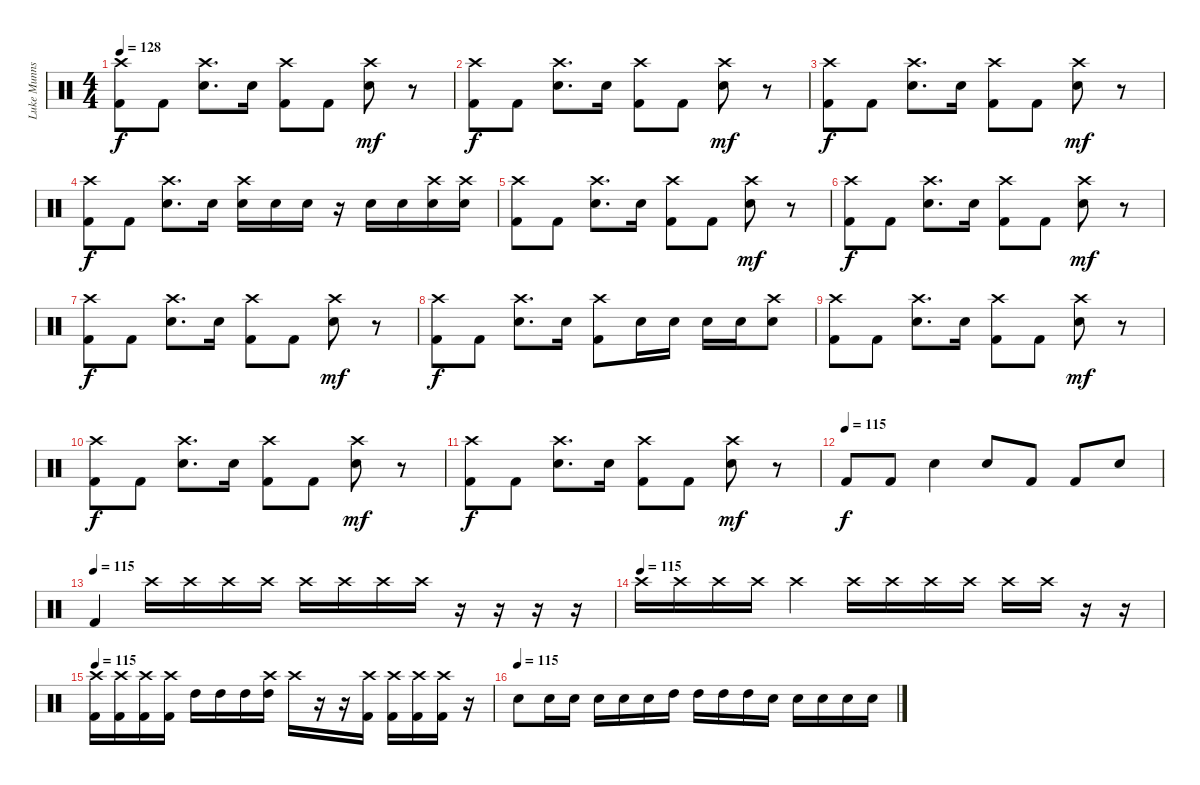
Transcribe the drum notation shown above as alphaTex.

\track ("Luke Munns" "Luke Munns") {instrument percussion}
\staff {score}
\articulation defaults
\ts (4 4)
\tempo 128
\clef neutral
\ks c
("Kick (hit) 2" "Crash high (hit)").8{dy f} "Kick (hit) 2".8 ("Electric Snare (hit)" "Crash high (hit)").8{d} "Electric Snare (hit)".16 ("Kick (hit) 2" "Crash high (hit)").8 "Kick (hit) 2".8 ("Electric Snare (hit)" "Crash high (hit)").8{dy mf} r.8 |
("Kick (hit) 2" "Crash high (hit)").8{dy f} "Kick (hit) 2".8 ("Electric Snare (hit)" "Crash high (hit)").8{d} "Electric Snare (hit)".16 ("Kick (hit) 2" "Crash high (hit)").8 "Kick (hit) 2".8 ("Electric Snare (hit)" "Crash high (hit)").8{dy mf} r.8 |
("Kick (hit) 2" "Crash high (hit)").8{dy f} "Kick (hit) 2".8 ("Electric Snare (hit)" "Crash high (hit)").8{d} "Electric Snare (hit)".16 ("Kick (hit) 2" "Crash high (hit)").8 "Kick (hit) 2".8 ("Electric Snare (hit)" "Crash high (hit)").8{dy mf} r.8 |
("Kick (hit) 2" "Crash high (hit)").8{dy f} "Kick (hit) 2".8 ("Electric Snare (hit)" "Crash high (hit)").8{d} "Electric Snare (hit)".16 ("Electric Snare (hit)" "Crash high (hit)").16 "Electric Snare (hit)".16 "Electric Snare (hit)".16 r.16 "Electric Snare (hit)".16 "Electric Snare (hit)".16 ("Electric Snare (hit)" "Crash high (hit)").16 ("Electric Snare (hit)" "Crash high (hit)").16 |
("Kick (hit) 2" "Crash high (hit)").8 "Kick (hit) 2".8 ("Electric Snare (hit)" "Crash high (hit)").8{d} "Electric Snare (hit)".16 ("Kick (hit) 2" "Crash high (hit)").8 "Kick (hit) 2".8 ("Electric Snare (hit)" "Crash high (hit)").8{dy mf} r.8 |
("Kick (hit) 2" "Crash high (hit)").8{dy f} "Kick (hit) 2".8 ("Electric Snare (hit)" "Crash high (hit)").8{d} "Electric Snare (hit)".16 ("Kick (hit) 2" "Crash high (hit)").8 "Kick (hit) 2".8 ("Electric Snare (hit)" "Crash high (hit)").8{dy mf} r.8 |
("Kick (hit) 2" "Crash high (hit)").8{dy f} "Kick (hit) 2".8 ("Electric Snare (hit)" "Crash high (hit)").8{d} "Electric Snare (hit)".16 ("Kick (hit) 2" "Crash high (hit)").8 "Kick (hit) 2".8 ("Electric Snare (hit)" "Crash high (hit)").8{dy mf} r.8 |
("Kick (hit) 2" "Crash high (hit)").8{dy f} "Kick (hit) 2".8 ("Electric Snare (hit)" "Crash high (hit)").8{d} "Electric Snare (hit)".16 ("Kick (hit) 2" "Crash high (hit)").8 "Electric Snare (hit)".16 "Electric Snare (hit)".16 "Electric Snare (hit)".16 "Electric Snare (hit)".16 ("Electric Snare (hit)" "Crash high (hit)").8 |
("Kick (hit) 2" "Crash high (hit)").8 "Kick (hit) 2".8 ("Electric Snare (hit)" "Crash high (hit)").8{d} "Electric Snare (hit)".16 ("Kick (hit) 2" "Crash high (hit)").8 "Kick (hit) 2".8 ("Electric Snare (hit)" "Crash high (hit)").8{dy mf} r.8 |
("Kick (hit) 2" "Crash high (hit)").8{dy f} "Kick (hit) 2".8 ("Electric Snare (hit)" "Crash high (hit)").8{d} "Electric Snare (hit)".16 ("Kick (hit) 2" "Crash high (hit)").8 "Kick (hit) 2".8 ("Electric Snare (hit)" "Crash high (hit)").8{dy mf} r.8 |
("Kick (hit) 2" "Crash high (hit)").8{dy f} "Kick (hit) 2".8 ("Electric Snare (hit)" "Crash high (hit)").8{d} "Electric Snare (hit)".16 ("Kick (hit) 2" "Crash high (hit)").8 "Kick (hit) 2".8 ("Electric Snare (hit)" "Crash high (hit)").8{dy mf} r.8 |
\tempo (115)
"Kick (hit) 2".8{dy f} "Kick (hit) 2".8 "Electric Snare (hit)".4 "Electric Snare (hit)".8 "Kick (hit) 2".8 "Kick (hit) 2".8 "Electric Snare (hit)".8 |
\tempo (115)
"Kick (hit) 2".4 "Crash high (hit)".16 "Crash high (hit)".16 "Crash high (hit)".16 "Crash high (hit)".16 "Crash high (hit)".16 "Crash high (hit)".16 "Crash high (hit)".16 "Crash high (hit)".16 r.16 r.16 r.16 r.16 |
\tempo (115)
"Crash high (hit)".16 "Crash high (hit)".16 "Crash high (hit)".16 "Crash high (hit)".16 "Crash high (hit)".4 "Crash high (hit)".16 "Crash high (hit)".16 "Crash high (hit)".16 "Crash high (hit)".16 "Crash high (hit)".16 "Crash high (hit)".16 r.16 r.16 |
\tempo 115
("Kick (hit) 2" "Crash high (hit)").16 ("Kick (hit) 2" "Crash high (hit)").16 ("Kick (hit) 2" "Crash high (hit)").16 ("Kick (hit) 2" "Crash high (hit)").16 "High Tom (hit)".16 "High Tom (hit)".16 "High Tom (hit)".16 ("High Tom (hit)" "Crash high (hit)").16 "Crash high (hit)".16 r.16 r.16 ("Kick (hit) 2" "Crash high (hit)").16 ("Kick (hit) 2" "Crash high (hit)").16 ("Kick (hit) 2" "Crash high (hit)").16 ("Kick (hit) 2" "Crash high (hit)").16 r.16 |
\tempo (115)
"Electric Snare (hit)".8 "Electric Snare (hit)".16 "Electric Snare (hit)".16 "Electric Snare (hit)".16 "Electric Snare (hit)".16 "Electric Snare (hit)".16 "High Tom (hit)".16 "High Tom (hit)".16 "High Tom (hit)".16 "High Tom (hit)".16 "Electric Snare (hit)".16 "Electric Snare (hit)".16 "Electric Snare (hit)".16 "Electric Snare (hit)".16 "Electric Snare (hit)".16
